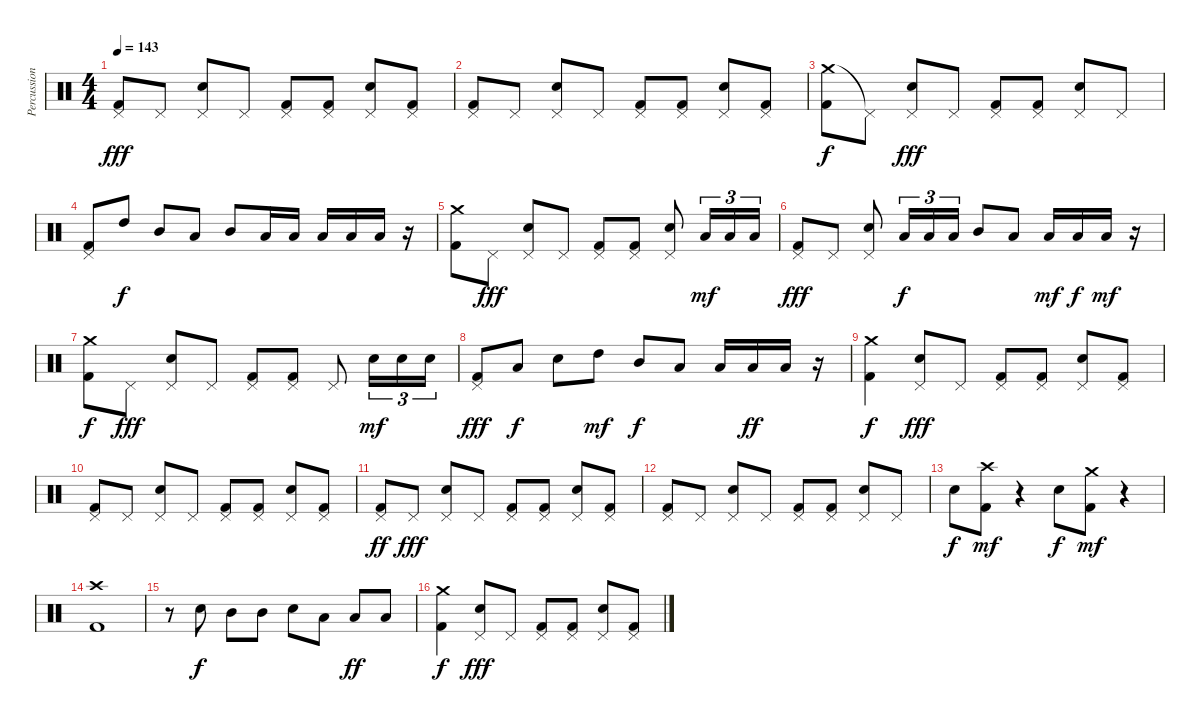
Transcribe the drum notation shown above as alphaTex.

\track ("Percussion" "Percussion") {instrument percussion}
\staff {score}
\articulation defaults
\ts (4 4)
\tempo 143
\clef neutral
\ks c
("Pedal Hi-Hat (hit)" "Kick (hit) 2").8{dy fff} "Pedal Hi-Hat (hit)".8 ("Pedal Hi-Hat (hit)" "Snare (hit) 2").8 "Pedal Hi-Hat (hit)".8 ("Pedal Hi-Hat (hit)" "Kick (hit) 2").8 ("Pedal Hi-Hat (hit)" "Kick (hit) 2").8 ("Pedal Hi-Hat (hit)" "Snare (hit) 2").8 ("Pedal Hi-Hat (hit)" "Kick (hit) 2").8 |
("Pedal Hi-Hat (hit)" "Kick (hit) 2").8 "Pedal Hi-Hat (hit)".8 ("Pedal Hi-Hat (hit)" "Snare (hit) 2").8 "Pedal Hi-Hat (hit)".8 ("Pedal Hi-Hat (hit)" "Kick (hit) 2").8 ("Pedal Hi-Hat (hit)" "Kick (hit) 2").8 ("Pedal Hi-Hat (hit)" "Snare (hit) 2").8 ("Pedal Hi-Hat (hit)" "Kick (hit) 2").8 |
("Crash medium (hit)" "Kick (hit) 2").8{dy f} "Pedal Hi-Hat (hit)"{t}.8 ("Pedal Hi-Hat (hit)" "Snare (hit) 2").8{dy fff} "Pedal Hi-Hat (hit)".8 ("Pedal Hi-Hat (hit)" "Kick (hit) 2").8 ("Pedal Hi-Hat (hit)" "Kick (hit) 2").8 ("Pedal Hi-Hat (hit)" "Snare (hit) 2").8 "Pedal Hi-Hat (hit)".8 |
("Pedal Hi-Hat (hit)" "Kick (hit) 2").8 "High Tom (hit)".8{dy f} "Mid Tom (hit)".8 "Low Tom (hit)".8 "Mid Tom (hit)".8 "Low Tom (hit)".16 "Low Tom (hit)".16 "Low Tom (hit)".16 "Low Tom (hit)".16 "Low Tom (hit)".16 r.16 |
("Crash medium (hit)" "Kick (hit) 2").8 "Pedal Hi-Hat (hit)".8{dy fff} ("Pedal Hi-Hat (hit)" "Snare (hit) 2").8 "Pedal Hi-Hat (hit)".8 ("Pedal Hi-Hat (hit)" "Kick (hit) 2").8 ("Pedal Hi-Hat (hit)" "Kick (hit) 2").8 ("Pedal Hi-Hat (hit)" "Snare (hit) 2").8 "Low Tom (hit)".16{tu (3 2) dy mf} "Low Tom (hit)".16{tu (3 2)} "Low Tom (hit)".16{tu (3 2)} |
("Pedal Hi-Hat (hit)" "Kick (hit) 2").8{dy fff} "Pedal Hi-Hat (hit)".8 ("Pedal Hi-Hat (hit)" "Snare (hit) 2").8 "Low Tom (hit)".16{tu (3 2) dy f} "Low Tom (hit)".16{tu (3 2)} "Low Tom (hit)".16{tu (3 2)} "Mid Tom (hit)".8 "Low Tom (hit)".8 "Low Tom (hit)".16{dy mf} "Low Tom (hit)".16{dy f} "Low Tom (hit)".16{dy mf} r.16 |
("Crash medium (hit)" "Kick (hit) 2").8{dy f} "Pedal Hi-Hat (hit)".8{dy fff} ("Pedal Hi-Hat (hit)" "Snare (hit) 2").8 "Pedal Hi-Hat (hit)".8 ("Pedal Hi-Hat (hit)" "Kick (hit) 2").8 ("Pedal Hi-Hat (hit)" "Kick (hit) 2").8 "Pedal Hi-Hat (hit)".8 "Snare (hit) 2".16{tu (3 2) dy mf} "Snare (hit) 2".16{tu (3 2)} "Snare (hit) 2".16{tu (3 2)} |
("Pedal Hi-Hat (hit)" "Kick (hit) 2").8{dy fff} "Low Tom (hit)".8{dy f} "Snare (hit) 2".8 "High Tom (hit)".8{dy mf} "Mid Tom (hit)".8{dy f} "Low Tom (hit)".8 "Low Tom (hit)".16 "Low Tom (hit)".16{dy ff} "Low Tom (hit)".16 r.16 |
("Crash medium (hit)" "Kick (hit) 2").4{dy f} ("Pedal Hi-Hat (hit)" "Snare (hit) 2").8{dy fff} "Pedal Hi-Hat (hit)".8 ("Pedal Hi-Hat (hit)" "Kick (hit) 2").8 ("Pedal Hi-Hat (hit)" "Kick (hit) 2").8 ("Pedal Hi-Hat (hit)" "Snare (hit) 2").8 ("Pedal Hi-Hat (hit)" "Kick (hit) 2").8 |
("Pedal Hi-Hat (hit)" "Kick (hit) 2").8 "Pedal Hi-Hat (hit)".8 ("Pedal Hi-Hat (hit)" "Snare (hit) 2").8 "Pedal Hi-Hat (hit)".8 ("Pedal Hi-Hat (hit)" "Kick (hit) 2").8 ("Pedal Hi-Hat (hit)" "Kick (hit) 2").8 ("Pedal Hi-Hat (hit)" "Snare (hit) 2").8 ("Pedal Hi-Hat (hit)" "Kick (hit) 2").8 |
("Pedal Hi-Hat (hit)" "Kick (hit) 2").8{dy ff} "Pedal Hi-Hat (hit)".8{dy fff} ("Pedal Hi-Hat (hit)" "Snare (hit) 2").8 "Pedal Hi-Hat (hit)".8 ("Pedal Hi-Hat (hit)" "Kick (hit) 2").8 ("Pedal Hi-Hat (hit)" "Kick (hit) 2").8 ("Pedal Hi-Hat (hit)" "Snare (hit) 2").8 ("Pedal Hi-Hat (hit)" "Kick (hit) 2").8 |
("Pedal Hi-Hat (hit)" "Kick (hit) 2").8 "Pedal Hi-Hat (hit)".8 ("Pedal Hi-Hat (hit)" "Snare (hit) 2").8 "Pedal Hi-Hat (hit)".8 ("Pedal Hi-Hat (hit)" "Kick (hit) 2").8 ("Pedal Hi-Hat (hit)" "Kick (hit) 2").8 ("Pedal Hi-Hat (hit)" "Snare (hit) 2").8 "Pedal Hi-Hat (hit)".8 |
"Snare (hit) 2".8{dy f} ("Crash high (hit)" "Kick (hit) 2").8{dy mf} r.4 "Snare (hit) 2".8{dy f} ("Crash medium (hit)" "Kick (hit) 2").8{dy mf} r.4 |
("Crash high (hit)" "Kick (hit) 2").1 |
r.8 "Snare (hit) 2".8{dy f} "Mid Tom (hit)".8 "Mid Tom (hit)".8 "Snare (hit) 2".8 "Low Tom (hit)".8 "Low Tom (hit)".8{dy ff} "Low Tom (hit)".8 |
("Crash medium (hit)" "Kick (hit) 2").4{dy f} ("Pedal Hi-Hat (hit)" "Snare (hit) 2").8{dy fff} "Pedal Hi-Hat (hit)".8 ("Pedal Hi-Hat (hit)" "Kick (hit) 2").8 ("Pedal Hi-Hat (hit)" "Kick (hit) 2").8 ("Pedal Hi-Hat (hit)" "Snare (hit) 2").8 ("Pedal Hi-Hat (hit)" "Kick (hit) 2").8
